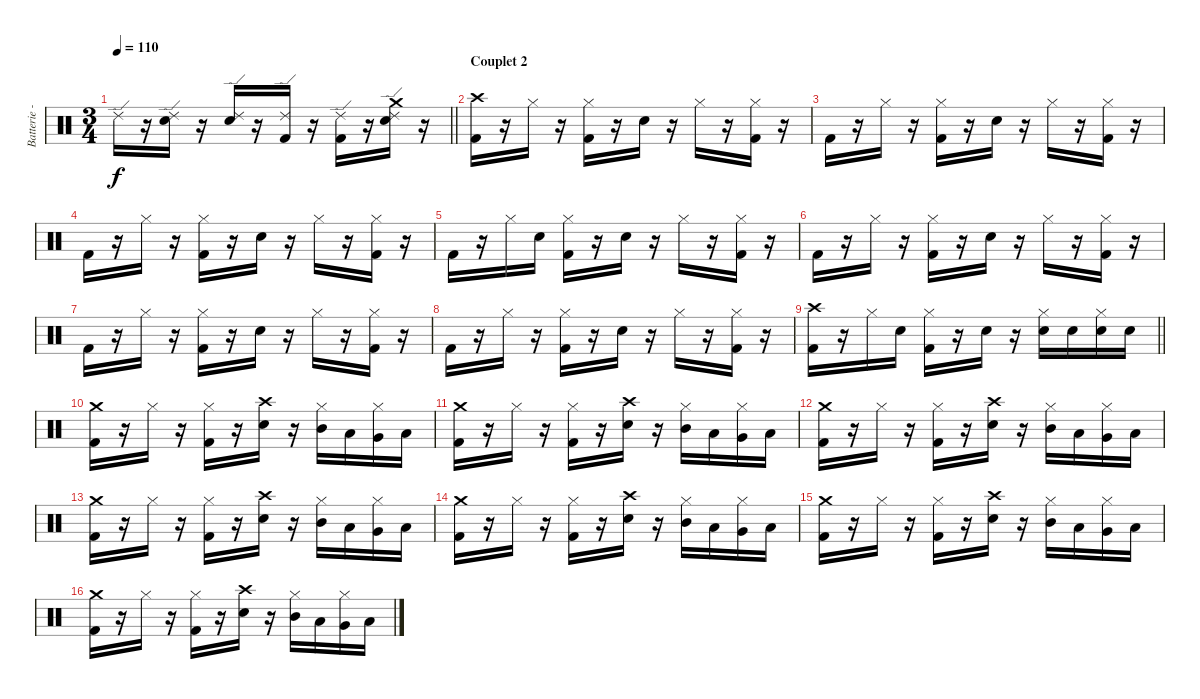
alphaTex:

\track ("Batterie - Toshiya" "Batterie -") {instrument percussion}
\staff {score}
\articulation defaults
\ts (3 4)
\tempo 110
\clef neutral
\barLineRight lightlight
\ks c "Ride (edge) 2".16{dy f}
r.16 ("Ride (edge) 2" "Electric Snare (hit)").16 r.16 ("Ride (edge) 2" "Electric Snare (hit)").16 r.16 ("Ride (edge) 2" "Kick (hit) 2").16 r.16 ("Ride (edge) 2" "Kick (hit) 2").16 r.16 ("Ride (edge) 2" "Crash medium (hit)" "Electric Snare (hit)").16 r.16 |
\section ("" "Couplet 2")
("Crash high (hit)" "Kick (hit) 2").16 r.16 "Hi-Hat (closed)".16 r.16 ("Hi-Hat (closed)" "Kick (hit) 2").16 r.16 "Electric Snare (hit)".16 r.16 "Hi-Hat (closed)".16 r.16 ("Hi-Hat (closed)" "Kick (hit) 2").16 r.16 |
"Kick (hit) 2".16 r.16 "Hi-Hat (closed)".16 r.16 ("Hi-Hat (closed)" "Kick (hit) 2").16 r.16 "Electric Snare (hit)".16 r.16 "Hi-Hat (closed)".16 r.16 ("Hi-Hat (closed)" "Kick (hit) 2").16 r.16 |
"Kick (hit) 2".16 r.16 "Hi-Hat (closed)".16 r.16 ("Hi-Hat (closed)" "Kick (hit) 2").16 r.16 "Electric Snare (hit)".16 r.16 "Hi-Hat (closed)".16 r.16 ("Hi-Hat (closed)" "Kick (hit) 2").16 r.16 |
"Kick (hit) 2".16 r.16 "Hi-Hat (closed)".16 "Electric Snare (hit)".16 ("Hi-Hat (closed)" "Kick (hit) 2").16 r.16 "Electric Snare (hit)".16 r.16 "Hi-Hat (closed)".16 r.16 ("Hi-Hat (closed)" "Kick (hit) 2").16 r.16 |
"Kick (hit) 2".16 r.16 "Hi-Hat (closed)".16 r.16 ("Hi-Hat (closed)" "Kick (hit) 2").16 r.16 "Electric Snare (hit)".16 r.16 "Hi-Hat (closed)".16 r.16 ("Hi-Hat (closed)" "Kick (hit) 2").16 r.16 |
"Kick (hit) 2".16 r.16 "Hi-Hat (closed)".16 r.16 ("Hi-Hat (closed)" "Kick (hit) 2").16 r.16 "Electric Snare (hit)".16 r.16 "Hi-Hat (closed)".16 r.16 ("Hi-Hat (closed)" "Kick (hit) 2").16 r.16 |
"Kick (hit) 2".16 r.16 "Hi-Hat (closed)".16 r.16 ("Hi-Hat (closed)" "Kick (hit) 2").16 r.16 "Electric Snare (hit)".16 r.16 "Hi-Hat (closed)".16 r.16 ("Hi-Hat (closed)" "Kick (hit) 2").16 r.16 |
\barLineRight lightlight
("Crash high (hit)" "Kick (hit) 2").16 r.16 "Hi-Hat (closed)".16 "Electric Snare (hit)".16 ("Hi-Hat (closed)" "Kick (hit) 2").16 r.16 "Electric Snare (hit)".16 r.16 ("Hi-Hat (closed)" "Electric Snare (hit)").16 "Electric Snare (hit)".16 ("Hi-Hat (closed)" "Electric Snare (hit)").16 "Electric Snare (hit)".16 |
("Crash medium (hit)" "Kick (hit) 2").16 r.16 "Hi-Hat (closed)".16 r.16 ("Hi-Hat (closed)" "Kick (hit) 2").16 r.16 ("Crash high (hit)" "Electric Snare (hit)").16 r.16 ("Hi-Hat (closed)" "Mid Tom (hit)").16 "Low Tom (hit)".16 ("Hi-Hat (closed)" "Very Low Tom (hit)").16 "Low Floor Tom (hit)".16 |
("Crash medium (hit)" "Kick (hit) 2").16 r.16 "Hi-Hat (closed)".16 r.16 ("Hi-Hat (closed)" "Kick (hit) 2").16 r.16 ("Crash high (hit)" "Electric Snare (hit)").16 r.16 ("Hi-Hat (closed)" "Mid Tom (hit)").16 "Low Tom (hit)".16 ("Hi-Hat (closed)" "Very Low Tom (hit)").16 "Low Floor Tom (hit)".16 |
("Crash medium (hit)" "Kick (hit) 2").16 r.16 "Hi-Hat (closed)".16 r.16 ("Hi-Hat (closed)" "Kick (hit) 2").16 r.16 ("Crash high (hit)" "Electric Snare (hit)").16 r.16 ("Hi-Hat (closed)" "Mid Tom (hit)").16 "Low Tom (hit)".16 ("Hi-Hat (closed)" "Very Low Tom (hit)").16 "Low Floor Tom (hit)".16 |
("Crash medium (hit)" "Kick (hit) 2").16 r.16 "Hi-Hat (closed)".16 r.16 ("Hi-Hat (closed)" "Kick (hit) 2").16 r.16 ("Crash high (hit)" "Electric Snare (hit)").16 r.16 ("Hi-Hat (closed)" "Mid Tom (hit)").16 "Low Tom (hit)".16 ("Hi-Hat (closed)" "Very Low Tom (hit)").16 "Low Floor Tom (hit)".16 |
("Crash medium (hit)" "Kick (hit) 2").16 r.16 "Hi-Hat (closed)".16 r.16 ("Hi-Hat (closed)" "Kick (hit) 2").16 r.16 ("Crash high (hit)" "Electric Snare (hit)").16 r.16 ("Hi-Hat (closed)" "Mid Tom (hit)").16 "Low Tom (hit)".16 ("Hi-Hat (closed)" "Very Low Tom (hit)").16 "Low Floor Tom (hit)".16 |
("Crash medium (hit)" "Kick (hit) 2").16 r.16 "Hi-Hat (closed)".16 r.16 ("Hi-Hat (closed)" "Kick (hit) 2").16 r.16 ("Crash high (hit)" "Electric Snare (hit)").16 r.16 ("Hi-Hat (closed)" "Mid Tom (hit)").16 "Low Tom (hit)".16 ("Hi-Hat (closed)" "Very Low Tom (hit)").16 "Low Floor Tom (hit)".16 |
("Crash medium (hit)" "Kick (hit) 2").16 r.16 "Hi-Hat (closed)".16 r.16 ("Hi-Hat (closed)" "Kick (hit) 2").16 r.16 ("Crash high (hit)" "Electric Snare (hit)").16 r.16 ("Hi-Hat (closed)" "Mid Tom (hit)").16 "Low Tom (hit)".16 ("Hi-Hat (closed)" "Very Low Tom (hit)").16 "Low Floor Tom (hit)".16
